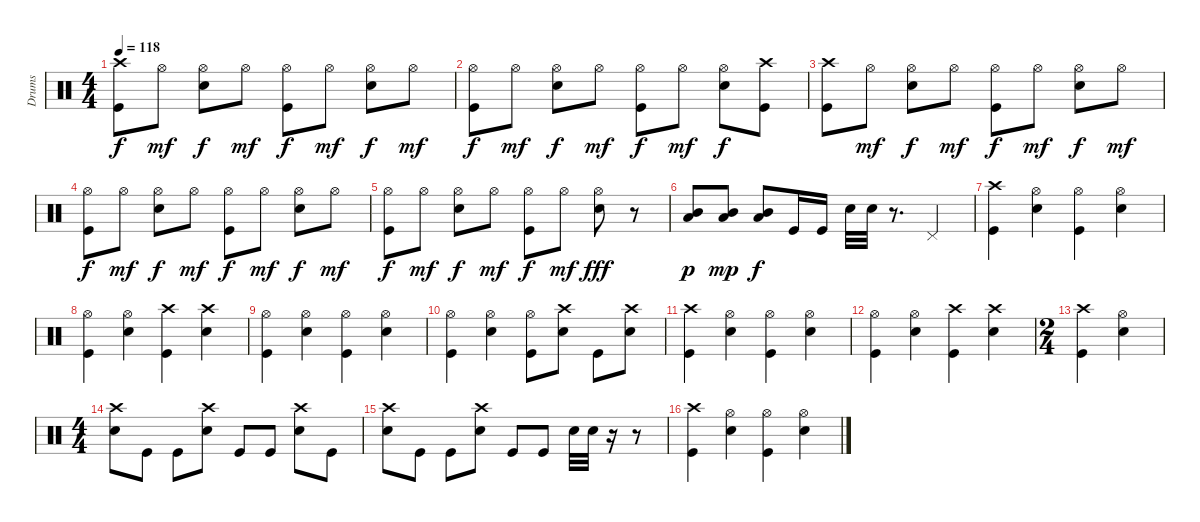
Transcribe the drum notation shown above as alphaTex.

\track ("Drums" "Drums") {instrument percussion}
\staff {score}
\articulation defaults
\ts (4 4)
\tempo 118
\clef neutral
\ks c
("Crash high (hit)" "Kick (hit)").8{dy f} "Hi-Hat (open)".8{dy mf} ("Hi-Hat (open)" "Snare (hit) 2").8{dy f} "Hi-Hat (open)".8{dy mf} ("Hi-Hat (open)" "Kick (hit)").8{dy f} "Hi-Hat (open)".8{dy mf} ("Hi-Hat (open)" "Snare (hit) 2").8{dy f} "Hi-Hat (open)".8{dy mf} |
("Hi-Hat (open)" "Kick (hit)").8{dy f} "Hi-Hat (open)".8{dy mf} ("Hi-Hat (open)" "Snare (hit) 2").8{dy f} "Hi-Hat (open)".8{dy mf} ("Hi-Hat (open)" "Kick (hit)").8{dy f} "Hi-Hat (open)".8{dy mf} ("Hi-Hat (open)" "Snare (hit) 2").8{dy f} ("Crash high (hit)" "Kick (hit)").8 |
("Crash high (hit)" "Kick (hit)").8 "Hi-Hat (open)".8{dy mf} ("Hi-Hat (open)" "Snare (hit) 2").8{dy f} "Hi-Hat (open)".8{dy mf} ("Hi-Hat (open)" "Kick (hit)").8{dy f} "Hi-Hat (open)".8{dy mf} ("Hi-Hat (open)" "Snare (hit) 2").8{dy f} "Hi-Hat (open)".8{dy mf} |
("Hi-Hat (open)" "Kick (hit)").8{dy f} "Hi-Hat (open)".8{dy mf} ("Hi-Hat (open)" "Snare (hit) 2").8{dy f} "Hi-Hat (open)".8{dy mf} ("Hi-Hat (open)" "Kick (hit)").8{dy f} "Hi-Hat (open)".8{dy mf} ("Hi-Hat (open)" "Snare (hit) 2").8{dy f} "Hi-Hat (open)".8{dy mf} |
("Hi-Hat (open)" "Kick (hit)").8{dy f} "Hi-Hat (open)".8{dy mf} ("Hi-Hat (open)" "Snare (hit) 2").8{dy f} "Hi-Hat (open)".8{dy mf} ("Hi-Hat (open)" "Kick (hit)").8{dy f} "Hi-Hat (open)".8{dy mf} ("Hi-Hat (open)" "Snare (hit) 2").8{dy fff} r.8 |
("Mid Tom (hit)" "Low Floor Tom (hit)").8{dy p} ("Mid Tom (hit)" "Low Floor Tom (hit)").8{dy mp} ("Mid Tom (hit)" "Low Floor Tom (hit)").8{dy f} "Kick (hit)".16 "Kick (hit)".16 "Snare (hit) 2".32 "Snare (hit) 2".32 r.8{d} "Pedal Hi-Hat (hit)".4 |
("Crash high (hit)" "Kick (hit)").4 ("Hi-Hat (open)" "Snare (hit) 2").4 ("Hi-Hat (open)" "Kick (hit)").4 ("Hi-Hat (open)" "Snare (hit) 2").4 |
("Hi-Hat (open)" "Kick (hit)").4 ("Hi-Hat (open)" "Snare (hit) 2").4 ("Kick (hit)" "Crash high (hit)").4 ("Snare (hit) 2" "Crash high (hit)").4 |
("Hi-Hat (open)" "Kick (hit)").4 ("Hi-Hat (open)" "Snare (hit) 2").4 ("Hi-Hat (open)" "Kick (hit)").4 ("Hi-Hat (open)" "Snare (hit) 2").4 |
("Hi-Hat (open)" "Kick (hit)").4 ("Hi-Hat (open)" "Snare (hit) 2").4 ("Hi-Hat (open)" "Kick (hit)").8 ("Snare (hit) 2" "Crash high (hit)").8 "Kick (hit)".8 ("Snare (hit) 2" "Crash high (hit)").8 |
("Crash high (hit)" "Kick (hit)").4 ("Hi-Hat (open)" "Snare (hit) 2").4 ("Hi-Hat (open)" "Kick (hit)").4 ("Hi-Hat (open)" "Snare (hit) 2").4 |
("Hi-Hat (open)" "Kick (hit)").4 ("Hi-Hat (open)" "Snare (hit) 2").4 ("Kick (hit)" "Crash high (hit)").4 ("Snare (hit) 2" "Crash high (hit)").4 |
\ts (2 4)
("Crash high (hit)" "Kick (hit)").4 ("Hi-Hat (open)" "Snare (hit) 2").4 |
\ts (4 4)
("Crash high (hit)" "Snare (hit) 2").8 "Kick (hit)".8 "Kick (hit)".8 ("Crash high (hit)" "Snare (hit) 2").8 "Kick (hit)".8 "Kick (hit)".8 ("Crash high (hit)" "Snare (hit) 2").8 "Kick (hit)".8 |
("Crash high (hit)" "Snare (hit) 2").8 "Kick (hit)".8 "Kick (hit)".8 ("Crash high (hit)" "Snare (hit) 2").8 "Kick (hit)".8 "Kick (hit)".8 "Snare (hit) 2".32 "Snare (hit) 2".32 r.16 r.8 |
("Crash high (hit)" "Kick (hit)").4 ("Hi-Hat (open)" "Snare (hit) 2").4 ("Hi-Hat (open)" "Kick (hit)").4 ("Hi-Hat (open)" "Snare (hit) 2").4
